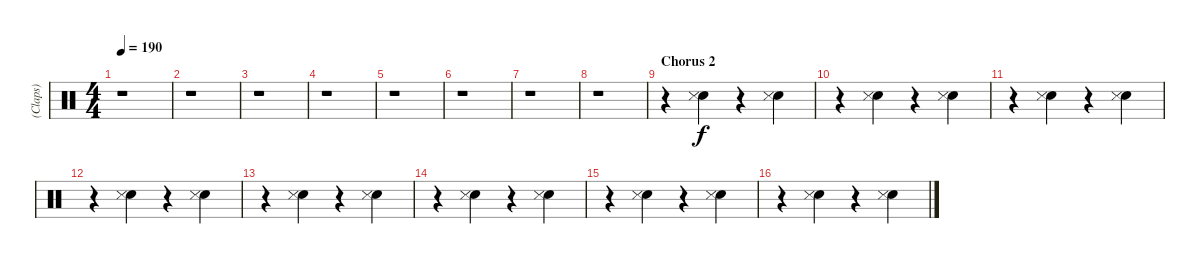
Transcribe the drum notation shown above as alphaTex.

\track ("(Claps)" "(Claps)") {instrument percussion}
\staff {score}
\articulation defaults
\ts (4 4)
\tempo 190
\clef neutral
\ks c
r.1{dy f} |
r.1 |
r.1 |
r.1 |
r.1 |
r.1 |
r.1 |
r.1 |
\section ("" "Chorus 2")
r.4 ("Hand Clap (hit)" "Snare (side stick) 3").4 r.4 ("Hand Clap (hit)" "Snare (side stick) 3").4 |
r.4 ("Hand Clap (hit)" "Snare (side stick) 3").4 r.4 ("Hand Clap (hit)" "Snare (side stick) 3").4 |
r.4 ("Hand Clap (hit)" "Snare (side stick) 3").4 r.4 ("Hand Clap (hit)" "Snare (side stick) 3").4 |
r.4 ("Hand Clap (hit)" "Snare (side stick) 3").4 r.4 ("Hand Clap (hit)" "Snare (side stick) 3").4 |
r.4 ("Hand Clap (hit)" "Snare (side stick) 3").4 r.4 ("Hand Clap (hit)" "Snare (side stick) 3").4 |
r.4 ("Hand Clap (hit)" "Snare (side stick) 3").4 r.4 ("Hand Clap (hit)" "Snare (side stick) 3").4 |
r.4 ("Hand Clap (hit)" "Snare (side stick) 3").4 r.4 ("Hand Clap (hit)" "Snare (side stick) 3").4 |
r.4 ("Hand Clap (hit)" "Snare (side stick) 3").4 r.4 ("Hand Clap (hit)" "Snare (side stick) 3").4
